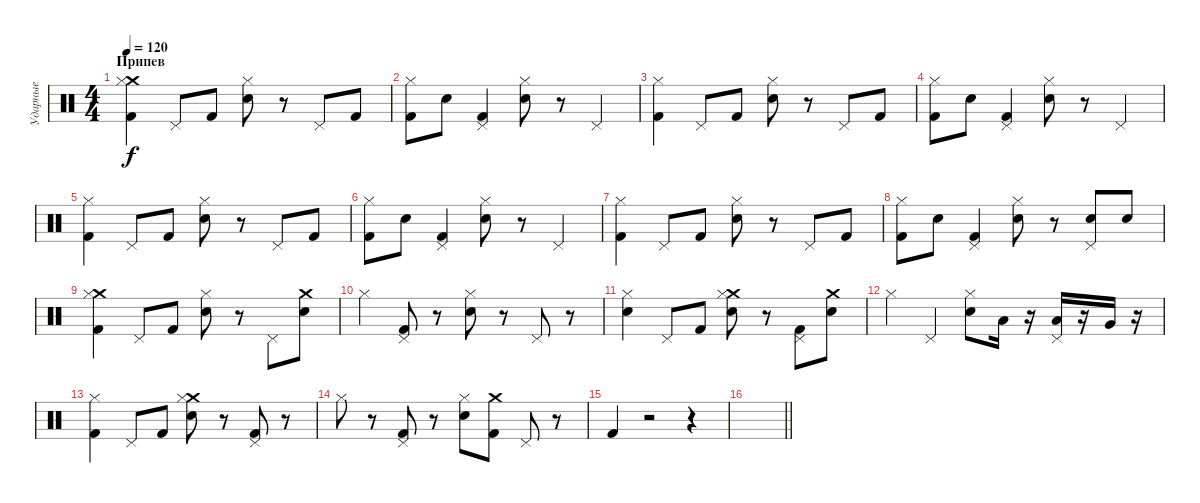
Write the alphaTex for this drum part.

\track ("Ударные" "Ударные") {instrument percussion}
\staff {score}
\articulation defaults
\ts (4 4)
\section ("" "Припев")
\tempo 120
\clef neutral
\ks c
("Kick (hit) 2" "Crash medium (hit)" "Hi-Hat (closed)").4{dy f} "Pedal Hi-Hat (hit)".8 "Kick (hit) 2".8 ("Snare (hit) 2" "Hi-Hat (closed)").8 r.8 "Pedal Hi-Hat (hit)".8 "Kick (hit) 2".8 |
("Kick (hit) 2" "Hi-Hat (closed)").8 "Snare (hit) 2".8 ("Kick (hit) 2" "Pedal Hi-Hat (hit)").4 ("Snare (hit) 2" "Hi-Hat (closed)").8 r.8 "Pedal Hi-Hat (hit)".4 |
("Kick (hit) 2" "Hi-Hat (closed)").4 "Pedal Hi-Hat (hit)".8 "Kick (hit) 2".8 ("Snare (hit) 2" "Hi-Hat (closed)").8 r.8 "Pedal Hi-Hat (hit)".8 "Kick (hit) 2".8 |
("Kick (hit) 2" "Hi-Hat (closed)").8 "Snare (hit) 2".8 ("Kick (hit) 2" "Pedal Hi-Hat (hit)").4 ("Snare (hit) 2" "Hi-Hat (closed)").8 r.8 "Pedal Hi-Hat (hit)".4 |
("Kick (hit) 2" "Hi-Hat (closed)").4 "Pedal Hi-Hat (hit)".8 "Kick (hit) 2".8 ("Snare (hit) 2" "Hi-Hat (closed)").8 r.8 "Pedal Hi-Hat (hit)".8 "Kick (hit) 2".8 |
("Kick (hit) 2" "Hi-Hat (closed)").8 "Snare (hit) 2".8 ("Kick (hit) 2" "Pedal Hi-Hat (hit)").4 ("Snare (hit) 2" "Hi-Hat (closed)").8 r.8 "Pedal Hi-Hat (hit)".4 |
("Kick (hit) 2" "Hi-Hat (closed)").4 "Pedal Hi-Hat (hit)".8 "Kick (hit) 2".8 ("Snare (hit) 2" "Hi-Hat (closed)").8 r.8 "Pedal Hi-Hat (hit)".8 "Kick (hit) 2".8 |
("Kick (hit) 2" "Hi-Hat (closed)").8 "Snare (hit) 2".8 ("Kick (hit) 2" "Pedal Hi-Hat (hit)").4 ("Snare (hit) 2" "Hi-Hat (closed)").8 r.8 ("Snare (hit) 2" "Pedal Hi-Hat (hit)").8 "Snare (hit) 2".8 |
("Kick (hit) 2" "Crash medium (hit)" "Hi-Hat (closed)").4 "Pedal Hi-Hat (hit)".8 "Kick (hit) 2".8 ("Snare (hit) 2" "Hi-Hat (closed)").8 r.8 "Pedal Hi-Hat (hit)".8 ("Snare (hit) 2" "Crash medium (hit)").8 |
"Hi-Hat (closed)".4 ("Kick (hit) 2" "Pedal Hi-Hat (hit)").8 r.8 ("Snare (hit) 2" "Hi-Hat (closed)").8 r.8 "Pedal Hi-Hat (hit)".8 r.8 |
("Snare (hit) 2" "Hi-Hat (closed)").4 "Pedal Hi-Hat (hit)".8 "Kick (hit) 2".8 ("Snare (hit) 2" "Crash medium (hit)" "Hi-Hat (closed)").8 r.8 ("Kick (hit) 2" "Pedal Hi-Hat (hit)").8 ("Snare (hit) 2" "Crash medium (hit)").8 |
"Hi-Hat (closed)".4 "Pedal Hi-Hat (hit)".4 ("Snare (hit) 2" "Hi-Hat (closed)").8 "Low Floor Tom (hit)".16 r.16 ("Low Tom (hit)" "Pedal Hi-Hat (hit)").16 r.16 "Very Low Tom (hit)".16 r.16 |
("Kick (hit) 2" "Hi-Hat (closed)").4 "Pedal Hi-Hat (hit)".8 "Kick (hit) 2".8 ("Snare (hit) 2" "Crash medium (hit)" "Hi-Hat (closed)").8 r.8 ("Kick (hit) 2" "Pedal Hi-Hat (hit)").8 r.8 |
"Hi-Hat (closed)".8 r.8 ("Kick (hit) 2" "Pedal Hi-Hat (hit)").8 r.8 ("Snare (hit) 2" "Hi-Hat (closed)").8 ("Kick (hit) 2" "Crash medium (hit)").8 "Pedal Hi-Hat (hit)".8 r.8 |
"Kick (hit) 2".4 r.2 r.4 |
\barLineRight lightlight
